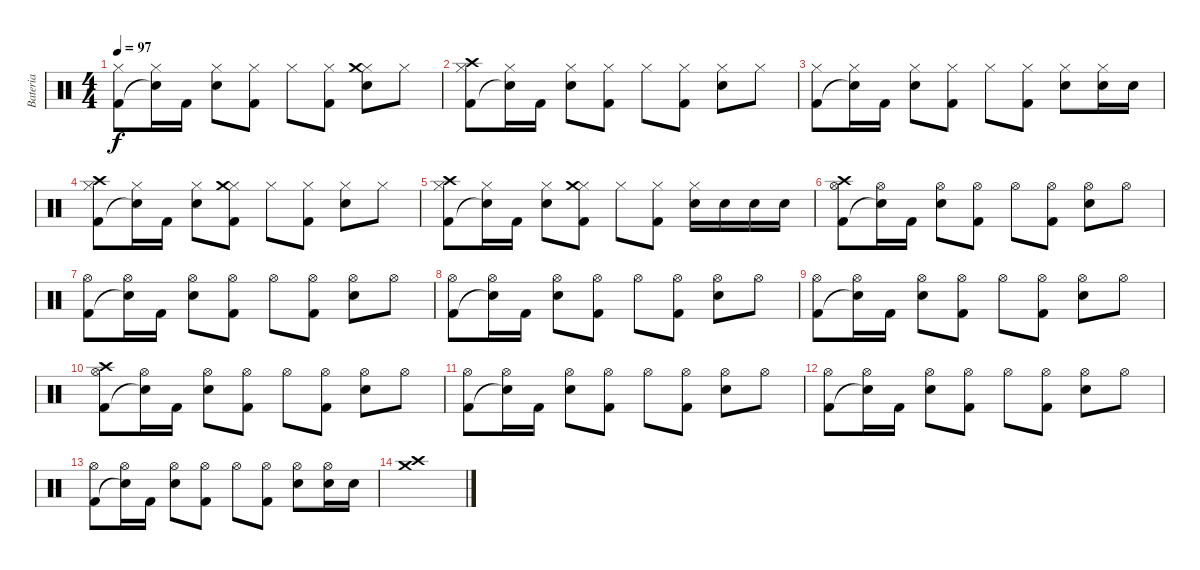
\track ("Bateria" "Bateria") {instrument percussion}
\staff {score}
\articulation defaults
\ts (4 4)
\tempo 97
\clef neutral
\ks c
("Kick (hit) 2" "Hi-Hat (closed)").8{dy f} ("Snare (hit)"{t} "Hi-Hat (closed)").16 "Kick (hit) 2".16 ("Electric Snare (hit)" "Hi-Hat (closed)").8 ("Kick (hit) 2" "Hi-Hat (closed)").8 "Hi-Hat (closed)".8 ("Kick (hit) 2" "Hi-Hat (closed)").8 ("Electric Snare (hit)" "Hi-Hat (closed)" "Crash medium (hit)").8 "Hi-Hat (closed)".8 |
("Kick (hit) 2" "Hi-Hat (closed)" "Crash high (hit)").8 ("Snare (hit)"{t} "Hi-Hat (closed)").16 "Kick (hit) 2".16 ("Electric Snare (hit)" "Hi-Hat (closed)").8 ("Kick (hit) 2" "Hi-Hat (closed)").8 "Hi-Hat (closed)".8 ("Kick (hit) 2" "Hi-Hat (closed)").8 ("Electric Snare (hit)" "Hi-Hat (closed)").8 "Hi-Hat (closed)".8 |
("Kick (hit) 2" "Hi-Hat (closed)").8 ("Snare (hit)"{t} "Hi-Hat (closed)").16 "Kick (hit) 2".16 ("Electric Snare (hit)" "Hi-Hat (closed)").8 ("Kick (hit) 2" "Hi-Hat (closed)").8 "Hi-Hat (closed)".8 ("Kick (hit) 2" "Hi-Hat (closed)").8 ("Electric Snare (hit)" "Hi-Hat (closed)").8 ("Electric Snare (hit)" "Hi-Hat (closed)").16 "Electric Snare (hit)".16 |
("Kick (hit) 2" "Hi-Hat (closed)" "Crash high (hit)").8 ("Snare (hit)"{t} "Hi-Hat (closed)").16 "Kick (hit) 2".16 ("Electric Snare (hit)" "Hi-Hat (closed)").8 ("Kick (hit) 2" "Hi-Hat (closed)" "Crash medium (hit)").8 "Hi-Hat (closed)".8 ("Kick (hit) 2" "Hi-Hat (closed)").8 ("Electric Snare (hit)" "Hi-Hat (closed)").8 "Hi-Hat (closed)".8 |
("Kick (hit) 2" "Hi-Hat (closed)" "Crash high (hit)").8 ("Snare (hit)"{t} "Hi-Hat (closed)").16 "Kick (hit) 2".16 ("Electric Snare (hit)" "Hi-Hat (closed)").8 ("Kick (hit) 2" "Hi-Hat (closed)" "Crash medium (hit)").8 "Hi-Hat (closed)".8 ("Kick (hit) 2" "Hi-Hat (closed)").8 ("Electric Snare (hit)" "Hi-Hat (closed)").16 "Electric Snare (hit)".16 "Electric Snare (hit)".16 "Electric Snare (hit)".16 |
("Kick (hit) 2" "Hi-Hat (open)" "Crash high (hit)").8 ("Snare (hit)"{t} "Hi-Hat (open)").16 "Kick (hit) 2".16 ("Electric Snare (hit)" "Hi-Hat (open)").8 ("Kick (hit) 2" "Hi-Hat (open)").8 "Hi-Hat (open)".8 ("Kick (hit) 2" "Hi-Hat (open)").8 ("Electric Snare (hit)" "Hi-Hat (open)").8 "Hi-Hat (open)".8 |
("Kick (hit) 2" "Hi-Hat (open)").8 ("Snare (hit)"{t} "Hi-Hat (open)").16 "Kick (hit) 2".16 ("Electric Snare (hit)" "Hi-Hat (open)").8 ("Kick (hit) 2" "Hi-Hat (open)").8 "Hi-Hat (open)".8 ("Kick (hit) 2" "Hi-Hat (open)").8 ("Electric Snare (hit)" "Hi-Hat (open)").8 "Hi-Hat (open)".8 |
("Kick (hit) 2" "Hi-Hat (open)").8 ("Snare (hit)"{t} "Hi-Hat (open)").16 "Kick (hit) 2".16 ("Electric Snare (hit)" "Hi-Hat (open)").8 ("Kick (hit) 2" "Hi-Hat (open)").8 "Hi-Hat (open)".8 ("Kick (hit) 2" "Hi-Hat (open)").8 ("Electric Snare (hit)" "Hi-Hat (open)").8 "Hi-Hat (open)".8 |
("Kick (hit) 2" "Hi-Hat (open)").8 ("Snare (hit)"{t} "Hi-Hat (open)").16 "Kick (hit) 2".16 ("Electric Snare (hit)" "Hi-Hat (open)").8 ("Kick (hit) 2" "Hi-Hat (open)").8 "Hi-Hat (open)".8 ("Kick (hit) 2" "Hi-Hat (open)").8 ("Electric Snare (hit)" "Hi-Hat (open)").8 "Hi-Hat (open)".8 |
("Kick (hit) 2" "Hi-Hat (open)" "Crash high (hit)").8 ("Snare (hit)"{t} "Hi-Hat (open)").16 "Kick (hit) 2".16 ("Electric Snare (hit)" "Hi-Hat (open)").8 ("Kick (hit) 2" "Hi-Hat (open)").8 "Hi-Hat (open)".8 ("Kick (hit) 2" "Hi-Hat (open)").8 ("Electric Snare (hit)" "Hi-Hat (open)").8 "Hi-Hat (open)".8 |
("Kick (hit) 2" "Hi-Hat (open)").8 ("Snare (hit)"{t} "Hi-Hat (open)").16 "Kick (hit) 2".16 ("Electric Snare (hit)" "Hi-Hat (open)").8 ("Kick (hit) 2" "Hi-Hat (open)").8 "Hi-Hat (open)".8 ("Kick (hit) 2" "Hi-Hat (open)").8 ("Electric Snare (hit)" "Hi-Hat (open)").8 "Hi-Hat (open)".8 |
("Kick (hit) 2" "Hi-Hat (open)").8 ("Snare (hit)"{t} "Hi-Hat (open)").16 "Kick (hit) 2".16 ("Electric Snare (hit)" "Hi-Hat (open)").8 ("Kick (hit) 2" "Hi-Hat (open)").8 "Hi-Hat (open)".8 ("Kick (hit) 2" "Hi-Hat (open)").8 ("Electric Snare (hit)" "Hi-Hat (open)").8 "Hi-Hat (open)".8 |
("Kick (hit) 2" "Hi-Hat (open)").8 ("Snare (hit)"{t} "Hi-Hat (open)").16 "Kick (hit) 2".16 ("Electric Snare (hit)" "Hi-Hat (open)").8 ("Kick (hit) 2" "Hi-Hat (open)").8 "Hi-Hat (open)".8 ("Kick (hit) 2" "Hi-Hat (open)").8 ("Electric Snare (hit)" "Hi-Hat (open)").8 ("Electric Snare (hit)" "Hi-Hat (open)").16 "Electric Snare (hit)".16 |
("Crash high (hit)" "Crash medium (hit)").1
